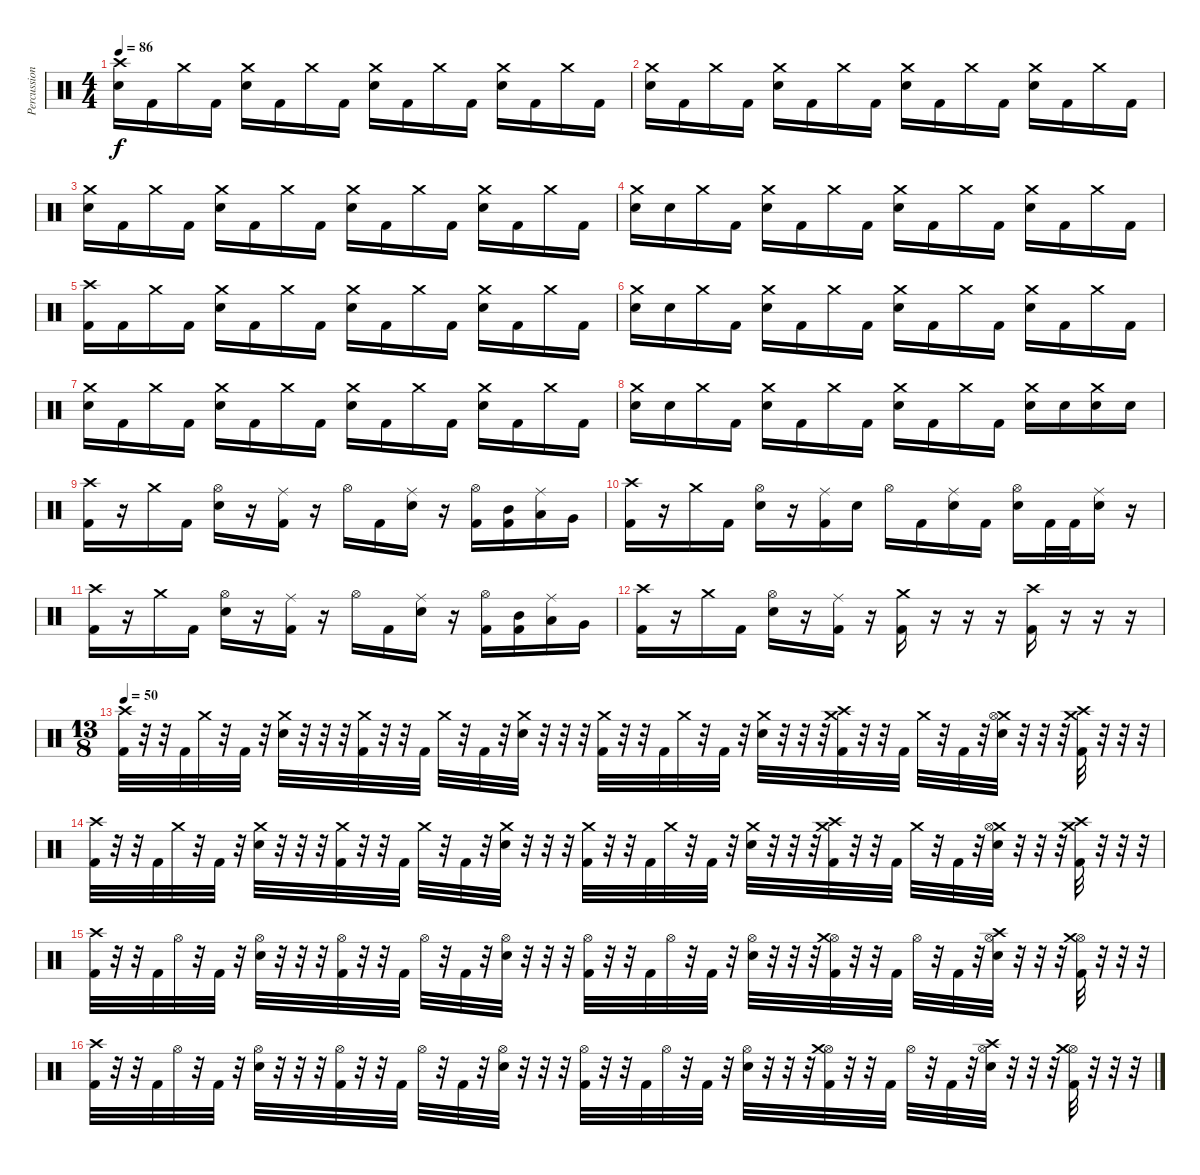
\track ("Percussion" "Percussion") {instrument percussion}
\staff {score}
\articulation defaults
\ts (4 4)
\tempo 86
\clef neutral
\ks c
("Crash high (hit)" "Snare (hit) 2").16{dy f} "Kick (hit) 2".16 "Crash medium (hit)".16 "Kick (hit) 2".16 ("Crash medium (hit)" "Snare (hit) 2").16 "Kick (hit) 2".16 "Crash medium (hit)".16 "Kick (hit) 2".16 ("Crash medium (hit)" "Snare (hit) 2").16 "Kick (hit) 2".16 "Crash medium (hit)".16 "Kick (hit) 2".16 ("Crash medium (hit)" "Snare (hit) 2").16 "Kick (hit) 2".16 "Crash medium (hit)".16 "Kick (hit) 2".16 |
("Crash medium (hit)" "Snare (hit) 2").16 "Kick (hit) 2".16 "Crash medium (hit)".16 "Kick (hit) 2".16 ("Crash medium (hit)" "Snare (hit) 2").16 "Kick (hit) 2".16 "Crash medium (hit)".16 "Kick (hit) 2".16 ("Crash medium (hit)" "Snare (hit) 2").16 "Kick (hit) 2".16 "Crash medium (hit)".16 "Kick (hit) 2".16 ("Crash medium (hit)" "Snare (hit) 2").16 "Kick (hit) 2".16 "Crash medium (hit)".16 "Kick (hit) 2".16 |
("Crash medium (hit)" "Snare (hit) 2").16 "Kick (hit) 2".16 "Crash medium (hit)".16 "Kick (hit) 2".16 ("Crash medium (hit)" "Snare (hit) 2").16 "Kick (hit) 2".16 "Crash medium (hit)".16 "Kick (hit) 2".16 ("Crash medium (hit)" "Snare (hit) 2").16 "Kick (hit) 2".16 "Crash medium (hit)".16 "Kick (hit) 2".16 ("Crash medium (hit)" "Snare (hit) 2").16 "Kick (hit) 2".16 "Crash medium (hit)".16 "Kick (hit) 2".16 |
("Crash medium (hit)" "Snare (hit) 2").16 "Snare (hit) 2".16 "Crash medium (hit)".16 "Kick (hit) 2".16 ("Crash medium (hit)" "Snare (hit) 2").16 "Kick (hit) 2".16 "Crash medium (hit)".16 "Kick (hit) 2".16 ("Crash medium (hit)" "Snare (hit) 2").16 "Kick (hit) 2".16 "Crash medium (hit)".16 "Kick (hit) 2".16 ("Crash medium (hit)" "Snare (hit) 2").16 "Kick (hit) 2".16 "Crash medium (hit)".16 "Kick (hit) 2".16 |
("Crash high (hit)" "Kick (hit) 2").16 "Kick (hit) 2".16 "Crash medium (hit)".16 "Kick (hit) 2".16 ("Crash medium (hit)" "Snare (hit) 2").16 "Kick (hit) 2".16 "Crash medium (hit)".16 "Kick (hit) 2".16 ("Crash medium (hit)" "Snare (hit) 2").16 "Kick (hit) 2".16 "Crash medium (hit)".16 "Kick (hit) 2".16 ("Crash medium (hit)" "Snare (hit) 2").16 "Kick (hit) 2".16 "Crash medium (hit)".16 "Kick (hit) 2".16 |
("Crash medium (hit)" "Snare (hit) 2").16 "Snare (hit) 2".16 "Crash medium (hit)".16 "Kick (hit) 2".16 ("Crash medium (hit)" "Snare (hit) 2").16 "Kick (hit) 2".16 "Crash medium (hit)".16 "Kick (hit) 2".16 ("Crash medium (hit)" "Snare (hit) 2").16 "Kick (hit) 2".16 "Crash medium (hit)".16 "Kick (hit) 2".16 ("Crash medium (hit)" "Snare (hit) 2").16 "Kick (hit) 2".16 "Crash medium (hit)".16 "Kick (hit) 2".16 |
("Crash medium (hit)" "Snare (hit) 2").16 "Kick (hit) 2".16 "Crash medium (hit)".16 "Kick (hit) 2".16 ("Crash medium (hit)" "Snare (hit) 2").16 "Kick (hit) 2".16 "Crash medium (hit)".16 "Kick (hit) 2".16 ("Crash medium (hit)" "Snare (hit) 2").16 "Kick (hit) 2".16 "Crash medium (hit)".16 "Kick (hit) 2".16 ("Crash medium (hit)" "Snare (hit) 2").16 "Kick (hit) 2".16 "Crash medium (hit)".16 "Kick (hit) 2".16 |
("Crash medium (hit)" "Snare (hit) 2").16 "Snare (hit) 2".16 "Crash medium (hit)".16 "Kick (hit) 2".16 ("Crash medium (hit)" "Snare (hit) 2").16 "Kick (hit) 2".16 "Crash medium (hit)".16 "Kick (hit) 2".16 ("Crash medium (hit)" "Snare (hit) 2").16 "Kick (hit) 2".16 "Crash medium (hit)".16 "Kick (hit) 2".16 ("Crash medium (hit)" "Snare (hit) 2").16 "Snare (hit) 2".16 ("Crash medium (hit)" "Snare (hit) 2").16 "Snare (hit) 2".16 |
("Crash high (hit)" "Kick (hit) 2").16 r.16 "Crash medium (hit)".16 "Kick (hit) 2".16 ("Hi-Hat (open)" "Snare (hit) 2").16 r.16 ("Ride (middle)" "Kick (hit) 2").16 r.16 "Hi-Hat (open)".16 "Kick (hit) 2".16 ("Ride (middle)" "Snare (hit) 2").16 r.16 ("Hi-Hat (open)" "Kick (hit) 2").16 ("Mid Tom (hit)" "Kick (hit) 2").16 ("Ride (middle)" "Low Tom (hit)").16 "Very Low Tom (hit)".16 |
("Crash high (hit)" "Kick (hit) 2").16 r.16 "Crash medium (hit)".16 "Kick (hit) 2".16 ("Hi-Hat (open)" "Snare (hit) 2").16 r.16 ("Ride (middle)" "Kick (hit) 2").16 "Snare (hit) 2".16 "Hi-Hat (open)".16 "Kick (hit) 2".16 ("Ride (middle)" "Snare (hit) 2").16 "Kick (hit) 2".16 ("Hi-Hat (open)" "Snare (hit) 2").16 "Kick (hit) 2".32 "Kick (hit) 2".32 ("Ride (middle)" "Snare (hit) 2").16 r.16 |
("Crash high (hit)" "Kick (hit) 2").16 r.16 "Crash medium (hit)".16 "Kick (hit) 2".16 ("Hi-Hat (open)" "Snare (hit) 2").16 r.16 ("Ride (middle)" "Kick (hit) 2").16 r.16 "Hi-Hat (open)".16 "Kick (hit) 2".16 ("Ride (middle)" "Snare (hit) 2").16 r.16 ("Hi-Hat (open)" "Kick (hit) 2").16 ("Mid Tom (hit)" "Kick (hit) 2").16 ("Ride (middle)" "Low Tom (hit)").16 "Very Low Tom (hit)".16 |
("Crash high (hit)" "Kick (hit) 2").16 r.16 "Crash medium (hit)".16 "Kick (hit) 2".16 ("Hi-Hat (open)" "Snare (hit) 2").16 r.16 ("Ride (middle)" "Kick (hit) 2").16 r.16 ("Crash medium (hit)" "Kick (hit) 2").16 r.16 r.16 r.16 ("Crash high (hit)" "Kick (hit) 2").16 r.16 r.16 r.16 |
\ts (13 8)
\tempo 50
("Crash high (hit)" "Kick (hit) 2").32 r.32 r.32 "Kick (hit) 2".32 "Crash medium (hit)".32 r.32 "Kick (hit) 2".32 r.32 ("Crash medium (hit)" "Snare (hit) 2").32 r.32 r.32 r.32 ("Crash medium (hit)" "Kick (hit) 2").32 r.32 r.32 "Kick (hit) 2".32 "Crash medium (hit)".32 r.32 "Kick (hit) 2".32 r.32 ("Crash medium (hit)" "Snare (hit) 2").32 r.32 r.32 r.32 ("Crash medium (hit)" "Kick (hit) 2").32 r.32 r.32 "Kick (hit) 2".32 "Crash medium (hit)".32 r.32 "Kick (hit) 2".32 r.32 ("Crash medium (hit)" "Snare (hit) 2").32 r.32 r.32 r.32 ("Crash medium (hit)" "Crash high (hit)" "Kick (hit) 2").32 r.32 r.32 "Kick (hit) 2".32 "Crash medium (hit)".32 r.32 "Kick (hit) 2".32 r.32 ("Crash medium (hit)" "Hi-Hat (open)" "Snare (hit) 2").32 r.32 r.32 r.32 ("Crash medium (hit)" "Crash high (hit)" "Kick (hit) 2").32 r.32 r.32 r.32 |
("Crash high (hit)" "Kick (hit) 2").32 r.32 r.32 "Kick (hit) 2".32 "Crash medium (hit)".32 r.32 "Kick (hit) 2".32 r.32 ("Crash medium (hit)" "Snare (hit) 2").32 r.32 r.32 r.32 ("Crash medium (hit)" "Kick (hit) 2").32 r.32 r.32 "Kick (hit) 2".32 "Crash medium (hit)".32 r.32 "Kick (hit) 2".32 r.32 ("Crash medium (hit)" "Snare (hit) 2").32 r.32 r.32 r.32 ("Crash medium (hit)" "Kick (hit) 2").32 r.32 r.32 "Kick (hit) 2".32 "Crash medium (hit)".32 r.32 "Kick (hit) 2".32 r.32 ("Crash medium (hit)" "Snare (hit) 2").32 r.32 r.32 r.32 ("Crash medium (hit)" "Crash high (hit)" "Kick (hit) 2").32 r.32 r.32 "Kick (hit) 2".32 "Crash medium (hit)".32 r.32 "Kick (hit) 2".32 r.32 ("Crash medium (hit)" "Hi-Hat (open)" "Snare (hit) 2").32 r.32 r.32 r.32 ("Crash medium (hit)" "Crash high (hit)" "Kick (hit) 2").32 r.32 r.32 r.32 |
("Crash high (hit)" "Kick (hit) 2").32 r.32 r.32 "Kick (hit) 2".32 "Hi-Hat (open)".32 r.32 "Kick (hit) 2".32 r.32 ("Hi-Hat (open)" "Snare (hit) 2").32 r.32 r.32 r.32 ("Hi-Hat (open)" "Kick (hit) 2").32 r.32 r.32 "Kick (hit) 2".32 "Hi-Hat (open)".32 r.32 "Kick (hit) 2".32 r.32 ("Hi-Hat (open)" "Snare (hit) 2").32 r.32 r.32 r.32 ("Hi-Hat (open)" "Kick (hit) 2").32 r.32 r.32 "Kick (hit) 2".32 "Hi-Hat (open)".32 r.32 "Kick (hit) 2".32 r.32 ("Hi-Hat (open)" "Snare (hit) 2").32 r.32 r.32 r.32 ("Hi-Hat (open)" "Crash medium (hit)" "Kick (hit) 2").32 r.32 r.32 "Kick (hit) 2".32 "Hi-Hat (open)".32 r.32 "Kick (hit) 2".32 r.32 ("Hi-Hat (open)" "Crash high (hit)" "Snare (hit) 2").32 r.32 r.32 r.32 ("Hi-Hat (open)" "Crash medium (hit)" "Kick (hit) 2").32 r.32 r.32 r.32 |
("Crash high (hit)" "Kick (hit) 2").32 r.32 r.32 "Kick (hit) 2".32 "Hi-Hat (open)".32 r.32 "Kick (hit) 2".32 r.32 ("Hi-Hat (open)" "Snare (hit) 2").32 r.32 r.32 r.32 ("Hi-Hat (open)" "Kick (hit) 2").32 r.32 r.32 "Kick (hit) 2".32 "Hi-Hat (open)".32 r.32 "Kick (hit) 2".32 r.32 ("Hi-Hat (open)" "Snare (hit) 2").32 r.32 r.32 r.32 ("Hi-Hat (open)" "Kick (hit) 2").32 r.32 r.32 "Kick (hit) 2".32 "Hi-Hat (open)".32 r.32 "Kick (hit) 2".32 r.32 ("Hi-Hat (open)" "Snare (hit) 2").32 r.32 r.32 r.32 ("Hi-Hat (open)" "Crash medium (hit)" "Kick (hit) 2").32 r.32 r.32 "Kick (hit) 2".32 "Hi-Hat (open)".32 r.32 "Kick (hit) 2".32 r.32 ("Hi-Hat (open)" "Crash high (hit)" "Snare (hit) 2").32 r.32 r.32 r.32 ("Hi-Hat (open)" "Crash medium (hit)" "Kick (hit) 2").32 r.32 r.32 r.32
